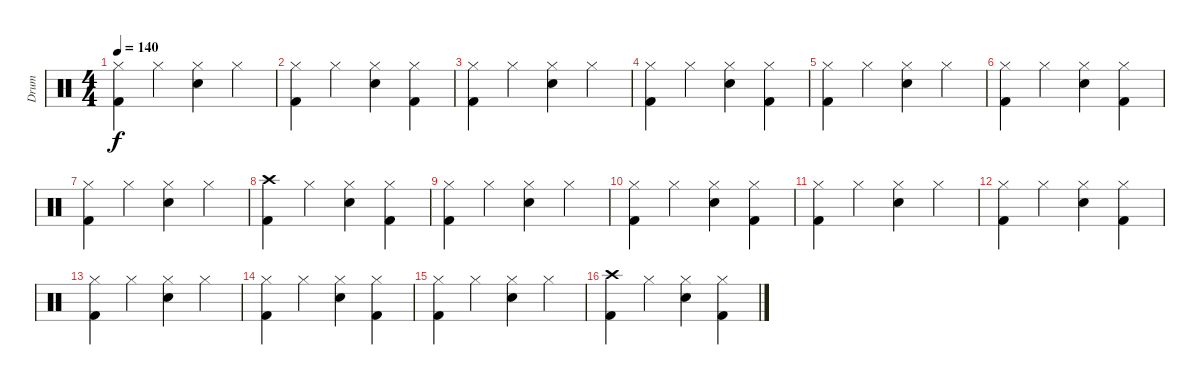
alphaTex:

\track ("Drum" "Drum") {instrument percussion}
\staff {score}
\articulation defaults
\ts (4 4)
\tempo 140
\clef neutral
\ks c
("Hi-Hat (closed)" "Kick (hit) 2").4{dy f} "Hi-Hat (closed)".4 ("Hi-Hat (closed)" "Electric Snare (hit)").4 "Hi-Hat (closed)".4 |
("Hi-Hat (closed)" "Kick (hit) 2").4 "Hi-Hat (closed)".4 ("Hi-Hat (closed)" "Electric Snare (hit)").4 ("Hi-Hat (closed)" "Kick (hit) 2").4 |
("Hi-Hat (closed)" "Kick (hit) 2").4 "Hi-Hat (closed)".4 ("Hi-Hat (closed)" "Electric Snare (hit)").4 "Hi-Hat (closed)".4 |
("Hi-Hat (closed)" "Kick (hit) 2").4 "Hi-Hat (closed)".4 ("Hi-Hat (closed)" "Electric Snare (hit)").4 ("Hi-Hat (closed)" "Kick (hit) 2").4 |
("Hi-Hat (closed)" "Kick (hit) 2").4 "Hi-Hat (closed)".4 ("Hi-Hat (closed)" "Electric Snare (hit)").4 "Hi-Hat (closed)".4 |
("Hi-Hat (closed)" "Kick (hit) 2").4 "Hi-Hat (closed)".4 ("Hi-Hat (closed)" "Electric Snare (hit)").4 ("Hi-Hat (closed)" "Kick (hit) 2").4 |
("Hi-Hat (closed)" "Kick (hit) 2").4 "Hi-Hat (closed)".4 ("Hi-Hat (closed)" "Electric Snare (hit)").4 "Hi-Hat (closed)".4 |
("Crash high (hit)" "Kick (hit) 2").4 "Hi-Hat (closed)".4 ("Hi-Hat (closed)" "Electric Snare (hit)").4 ("Hi-Hat (closed)" "Kick (hit) 2").4 |
("Hi-Hat (closed)" "Kick (hit) 2").4 "Hi-Hat (closed)".4 ("Hi-Hat (closed)" "Electric Snare (hit)").4 "Hi-Hat (closed)".4 |
("Hi-Hat (closed)" "Kick (hit) 2").4 "Hi-Hat (closed)".4 ("Hi-Hat (closed)" "Electric Snare (hit)").4 ("Hi-Hat (closed)" "Kick (hit) 2").4 |
("Hi-Hat (closed)" "Kick (hit) 2").4 "Hi-Hat (closed)".4 ("Hi-Hat (closed)" "Electric Snare (hit)").4 "Hi-Hat (closed)".4 |
("Hi-Hat (closed)" "Kick (hit) 2").4 "Hi-Hat (closed)".4 ("Hi-Hat (closed)" "Electric Snare (hit)").4 ("Hi-Hat (closed)" "Kick (hit) 2").4 |
("Hi-Hat (closed)" "Kick (hit) 2").4 "Hi-Hat (closed)".4 ("Hi-Hat (closed)" "Electric Snare (hit)").4 "Hi-Hat (closed)".4 |
("Hi-Hat (closed)" "Kick (hit) 2").4 "Hi-Hat (closed)".4 ("Hi-Hat (closed)" "Electric Snare (hit)").4 ("Hi-Hat (closed)" "Kick (hit) 2").4 |
("Hi-Hat (closed)" "Kick (hit) 2").4 "Hi-Hat (closed)".4 ("Hi-Hat (closed)" "Electric Snare (hit)").4 "Hi-Hat (closed)".4 |
("Crash high (hit)" "Kick (hit) 2").4 "Hi-Hat (closed)".4 ("Hi-Hat (closed)" "Electric Snare (hit)").4 ("Hi-Hat (closed)" "Kick (hit) 2").4
